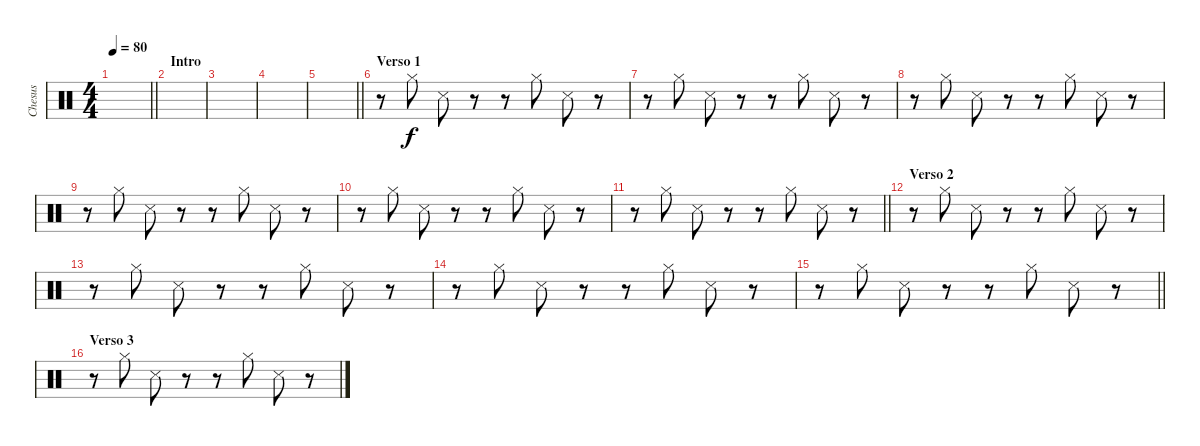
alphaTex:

\track ("Chesus" "Chesus") {instrument percussion}
\staff {score}
\articulation defaults
\ts (4 4)
\tempo 80
\clef neutral
\barLineRight lightlight
\ks c
|
\section ("" "Intro")
|
|
|
\barLineRight lightlight
|
\section ("" "Verso 1")
r.8 "Hi-Hat (closed)".8 "Snare (side stick) 3".8 r.8 r.8 "Hi-Hat (closed)".8 "Snare (side stick) 3".8 r.8 |
r.8 "Hi-Hat (closed)".8 "Snare (side stick) 3".8 r.8 r.8 "Hi-Hat (closed)".8 "Snare (side stick) 3".8 r.8 |
r.8 "Hi-Hat (closed)".8 "Snare (side stick) 3".8 r.8 r.8 "Hi-Hat (closed)".8 "Snare (side stick) 3".8 r.8 |
r.8 "Hi-Hat (closed)".8 "Snare (side stick) 3".8 r.8 r.8 "Hi-Hat (closed)".8 "Snare (side stick) 3".8 r.8 |
r.8 "Hi-Hat (closed)".8 "Snare (side stick) 3".8 r.8 r.8 "Hi-Hat (closed)".8 "Snare (side stick) 3".8 r.8 |
\barLineRight lightlight
r.8 "Hi-Hat (closed)".8 "Snare (side stick) 3".8 r.8 r.8 "Hi-Hat (closed)".8 "Snare (side stick) 3".8 r.8 |
\section ("" "Verso 2")
r.8 "Hi-Hat (closed)".8 "Snare (side stick) 3".8 r.8 r.8 "Hi-Hat (closed)".8 "Snare (side stick) 3".8 r.8 |
r.8 "Hi-Hat (closed)".8 "Snare (side stick) 3".8 r.8 r.8 "Hi-Hat (closed)".8 "Snare (side stick) 3".8 r.8 |
r.8 "Hi-Hat (closed)".8 "Snare (side stick) 3".8 r.8 r.8 "Hi-Hat (closed)".8 "Snare (side stick) 3".8 r.8 |
\barLineRight lightlight
r.8 "Hi-Hat (closed)".8 "Snare (side stick) 3".8 r.8 r.8 "Hi-Hat (closed)".8 "Snare (side stick) 3".8 r.8 |
\section ("" "Verso 3")
r.8 "Hi-Hat (closed)".8 "Snare (side stick) 3".8 r.8 r.8 "Hi-Hat (closed)".8 "Snare (side stick) 3".8 r.8
